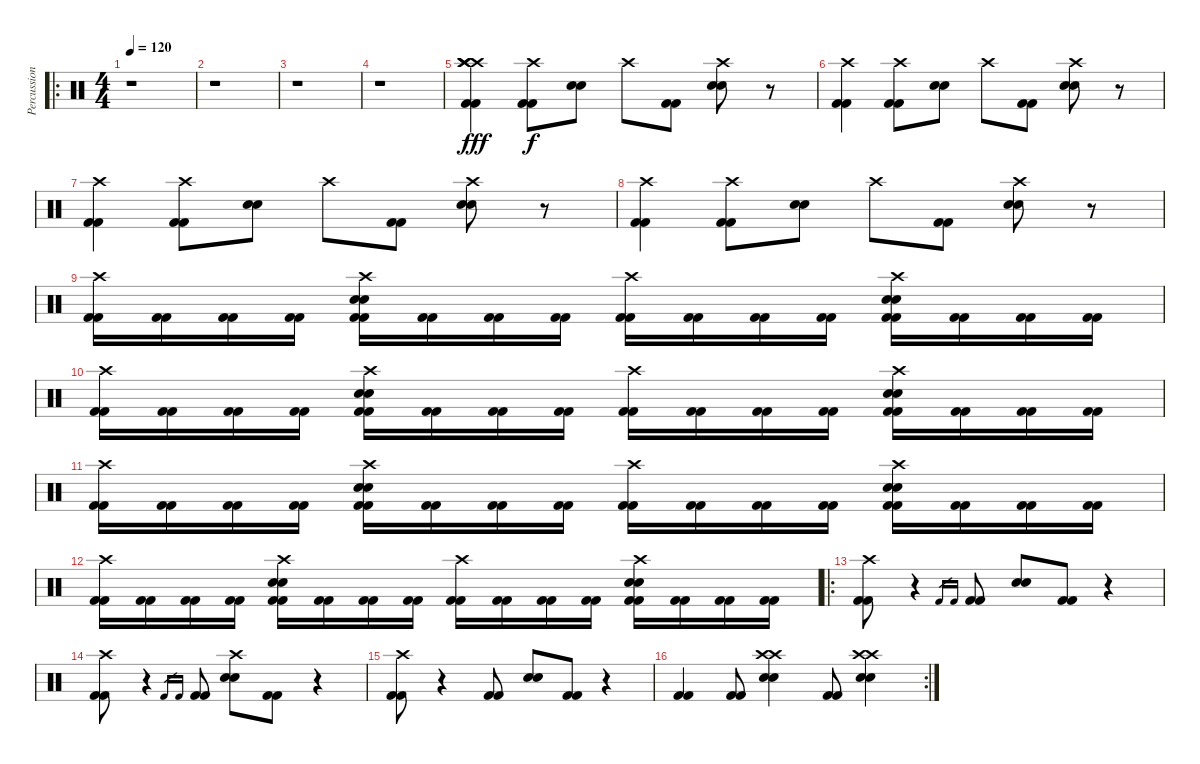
\track ("Percussion" "Percussion") {instrument percussion}
\staff {score}
\articulation defaults
\ro
\ts (4 4)
\tempo 120
\clef neutral
\ks c
r.1{dy fff} |
r.1 |
r.1 |
r.1 |
("Crash high (hit)" "Crash high (hit)" "Crash high (hit)" "Crash high (hit)" "Kick (hit) 2" "Kick (hit) 2").4 ("Crash high (hit)" "Kick (hit) 2" "Kick (hit) 2").8{dy f} ("Snare (hit) 2" "Snare (hit) 2").8 "Crash high (hit)".8 ("Kick (hit) 2" "Kick (hit) 2").8 ("Crash high (hit)" "Snare (hit) 2" "Snare (hit) 2").8 r.8 |
("Crash high (hit)" "Kick (hit) 2" "Kick (hit) 2").4 ("Crash high (hit)" "Kick (hit) 2" "Kick (hit) 2").8 ("Snare (hit) 2" "Snare (hit) 2").8 "Crash high (hit)".8 ("Kick (hit) 2" "Kick (hit) 2").8 ("Crash high (hit)" "Snare (hit) 2" "Snare (hit) 2").8 r.8 |
("Crash high (hit)" "Kick (hit) 2" "Kick (hit) 2").4 ("Crash high (hit)" "Kick (hit) 2" "Kick (hit) 2").8 ("Snare (hit) 2" "Snare (hit) 2").8 "Crash high (hit)".8 ("Kick (hit) 2" "Kick (hit) 2").8 ("Crash high (hit)" "Snare (hit) 2" "Snare (hit) 2").8 r.8 |
("Crash high (hit)" "Kick (hit) 2" "Kick (hit) 2").4 ("Crash high (hit)" "Kick (hit) 2" "Kick (hit) 2").8 ("Snare (hit) 2" "Snare (hit) 2").8 "Crash high (hit)".8 ("Kick (hit) 2" "Kick (hit) 2").8 ("Crash high (hit)" "Snare (hit) 2" "Snare (hit) 2").8 r.8 |
("Crash high (hit)" "Kick (hit) 2" "Kick (hit) 2").16 ("Kick (hit) 2" "Kick (hit) 2").16 ("Kick (hit) 2" "Kick (hit) 2").16 ("Kick (hit) 2" "Kick (hit) 2").16 ("Crash high (hit)" "Snare (hit) 2" "Snare (hit) 2" "Kick (hit) 2" "Kick (hit) 2").16 ("Kick (hit) 2" "Kick (hit) 2").16 ("Kick (hit) 2" "Kick (hit) 2").16 ("Kick (hit) 2" "Kick (hit) 2").16 ("Crash high (hit)" "Kick (hit) 2" "Kick (hit) 2").16 ("Kick (hit) 2" "Kick (hit) 2").16 ("Kick (hit) 2" "Kick (hit) 2").16 ("Kick (hit) 2" "Kick (hit) 2").16 ("Crash high (hit)" "Snare (hit) 2" "Snare (hit) 2" "Kick (hit) 2" "Kick (hit) 2").16 ("Kick (hit) 2" "Kick (hit) 2").16 ("Kick (hit) 2" "Kick (hit) 2").16 ("Kick (hit) 2" "Kick (hit) 2").16 |
("Crash high (hit)" "Kick (hit) 2" "Kick (hit) 2").16 ("Kick (hit) 2" "Kick (hit) 2").16 ("Kick (hit) 2" "Kick (hit) 2").16 ("Kick (hit) 2" "Kick (hit) 2").16 ("Crash high (hit)" "Snare (hit) 2" "Snare (hit) 2" "Kick (hit) 2" "Kick (hit) 2").16 ("Kick (hit) 2" "Kick (hit) 2").16 ("Kick (hit) 2" "Kick (hit) 2").16 ("Kick (hit) 2" "Kick (hit) 2").16 ("Crash high (hit)" "Kick (hit) 2" "Kick (hit) 2").16 ("Kick (hit) 2" "Kick (hit) 2").16 ("Kick (hit) 2" "Kick (hit) 2").16 ("Kick (hit) 2" "Kick (hit) 2").16 ("Crash high (hit)" "Snare (hit) 2" "Snare (hit) 2" "Kick (hit) 2" "Kick (hit) 2").16 ("Kick (hit) 2" "Kick (hit) 2").16 ("Kick (hit) 2" "Kick (hit) 2").16 ("Kick (hit) 2" "Kick (hit) 2").16 |
("Crash high (hit)" "Kick (hit) 2" "Kick (hit) 2").16 ("Kick (hit) 2" "Kick (hit) 2").16 ("Kick (hit) 2" "Kick (hit) 2").16 ("Kick (hit) 2" "Kick (hit) 2").16 ("Crash high (hit)" "Snare (hit) 2" "Snare (hit) 2" "Kick (hit) 2" "Kick (hit) 2").16 ("Kick (hit) 2" "Kick (hit) 2").16 ("Kick (hit) 2" "Kick (hit) 2").16 ("Kick (hit) 2" "Kick (hit) 2").16 ("Crash high (hit)" "Kick (hit) 2" "Kick (hit) 2").16 ("Kick (hit) 2" "Kick (hit) 2").16 ("Kick (hit) 2" "Kick (hit) 2").16 ("Kick (hit) 2" "Kick (hit) 2").16 ("Crash high (hit)" "Snare (hit) 2" "Snare (hit) 2" "Kick (hit) 2" "Kick (hit) 2").16 ("Kick (hit) 2" "Kick (hit) 2").16 ("Kick (hit) 2" "Kick (hit) 2").16 ("Kick (hit) 2" "Kick (hit) 2").16 |
("Crash high (hit)" "Kick (hit) 2" "Kick (hit) 2").16 ("Kick (hit) 2" "Kick (hit) 2").16 ("Kick (hit) 2" "Kick (hit) 2").16 ("Kick (hit) 2" "Kick (hit) 2").16 ("Crash high (hit)" "Snare (hit) 2" "Snare (hit) 2" "Kick (hit) 2" "Kick (hit) 2").16 ("Kick (hit) 2" "Kick (hit) 2").16 ("Kick (hit) 2" "Kick (hit) 2").16 ("Kick (hit) 2" "Kick (hit) 2").16 ("Crash high (hit)" "Kick (hit) 2" "Kick (hit) 2").16 ("Kick (hit) 2" "Kick (hit) 2").16 ("Kick (hit) 2" "Kick (hit) 2").16 ("Kick (hit) 2" "Kick (hit) 2").16 ("Crash high (hit)" "Snare (hit) 2" "Snare (hit) 2" "Kick (hit) 2" "Kick (hit) 2").16 ("Kick (hit) 2" "Kick (hit) 2").16 ("Kick (hit) 2" "Kick (hit) 2").16 ("Kick (hit) 2" "Kick (hit) 2").16 |
\ro
("Crash high (hit)" "Kick (hit) 2" "Kick (hit) 2").8 r.4 "Kick (hit) 2".16{gr} "Kick (hit) 2".16{gr} ("Kick (hit) 2" "Kick (hit) 2").8 ("Snare (hit) 2" "Snare (hit) 2").8 ("Kick (hit) 2" "Kick (hit) 2").8 r.4 |
("Crash high (hit)" "Kick (hit) 2" "Kick (hit) 2").8 r.4 "Kick (hit) 2".16{gr} "Kick (hit) 2".16{gr} ("Kick (hit) 2" "Kick (hit) 2").8 ("Crash high (hit)" "Snare (hit) 2" "Snare (hit) 2").8 ("Kick (hit) 2" "Kick (hit) 2").8 r.4 |
("Crash high (hit)" "Kick (hit) 2" "Kick (hit) 2").8 r.4 ("Kick (hit) 2" "Kick (hit) 2").8 ("Snare (hit) 2" "Snare (hit) 2").8 ("Kick (hit) 2" "Kick (hit) 2").8 r.4 |
\rc 2
("Kick (hit) 2" "Kick (hit) 2").4 ("Kick (hit) 2" "Kick (hit) 2").8 ("Crash high (hit)" "Crash high (hit)" "Snare (hit) 2" "Snare (hit) 2").4 ("Kick (hit) 2" "Kick (hit) 2").8 ("Crash high (hit)" "Crash high (hit)" "Snare (hit) 2" "Snare (hit) 2").4
